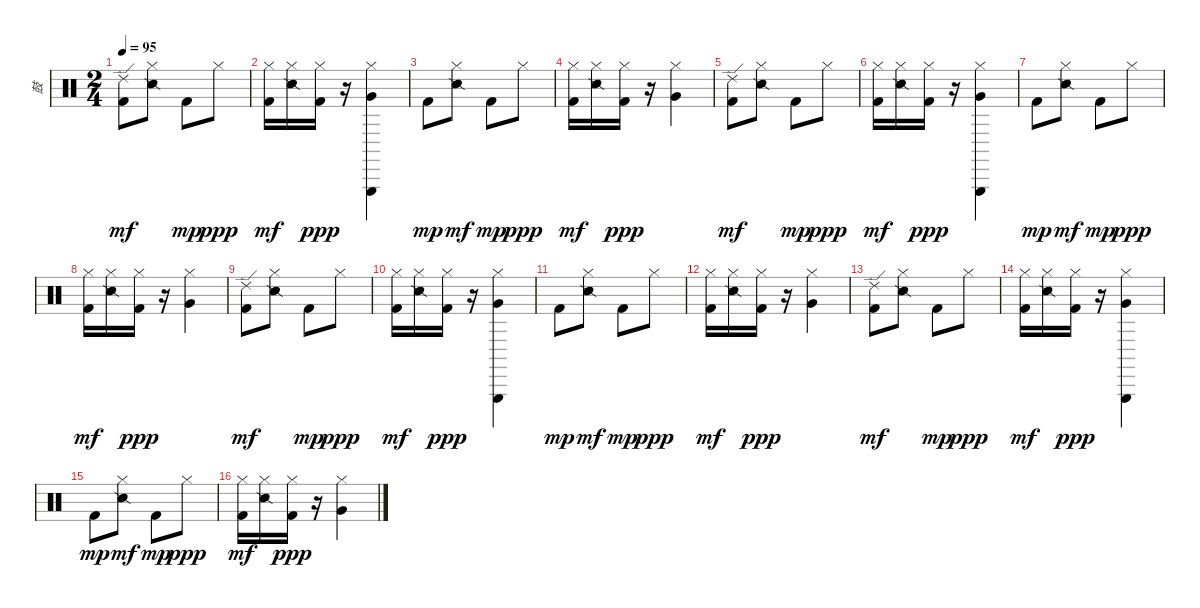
\track ("鼓" "鼓") {instrument percussion}
\staff {score}
\articulation defaults
\ts (2 4)
\tempo 95
\clef neutral
\ks c
("Kick (hit) 2" "Ride (edge) 2").8{dy mf} ("Snare (side stick) 2" "Hi-Hat (closed)").8 "Kick (hit) 2".8{dy mp} "Hi-Hat (closed)".8{dy ppp} |
("Kick (hit) 2" "Hi-Hat (closed)").16{dy mf} ("Snare (side stick) 2" "Hi-Hat (closed)").16 ("Kick (hit) 2" "Hi-Hat (closed)").16{dy ppp} r.16 ("Triangle (hit)" "Very Low Tom (hit)" "Hi-Hat (closed)").4 |
"Kick (hit) 2".8{dy mp} ("Snare (side stick) 2" "Hi-Hat (closed)").8{dy mf} "Kick (hit) 2".8{dy mp} "Hi-Hat (closed)".8{dy ppp} |
("Kick (hit) 2" "Hi-Hat (closed)").16{dy mf} ("Snare (side stick) 2" "Hi-Hat (closed)").16 ("Kick (hit) 2" "Hi-Hat (closed)").16{dy ppp} r.16 ("Very Low Tom (hit)" "Hi-Hat (closed)").4 |
("Kick (hit) 2" "Ride (edge) 2").8{dy mf} ("Snare (side stick) 2" "Hi-Hat (closed)").8 "Kick (hit) 2".8{dy mp} "Hi-Hat (closed)".8{dy ppp} |
("Kick (hit) 2" "Hi-Hat (closed)").16{dy mf} ("Snare (side stick) 2" "Hi-Hat (closed)").16 ("Kick (hit) 2" "Hi-Hat (closed)").16{dy ppp} r.16 ("Triangle (hit)" "Very Low Tom (hit)" "Hi-Hat (closed)").4 |
"Kick (hit) 2".8{dy mp} ("Snare (side stick) 2" "Hi-Hat (closed)").8{dy mf} "Kick (hit) 2".8{dy mp} "Hi-Hat (closed)".8{dy ppp} |
("Kick (hit) 2" "Hi-Hat (closed)").16{dy mf} ("Snare (side stick) 2" "Hi-Hat (closed)").16 ("Kick (hit) 2" "Hi-Hat (closed)").16{dy ppp} r.16 ("Very Low Tom (hit)" "Hi-Hat (closed)").4 |
("Kick (hit) 2" "Ride (edge) 2").8{dy mf} ("Snare (side stick) 2" "Hi-Hat (closed)").8 "Kick (hit) 2".8{dy mp} "Hi-Hat (closed)".8{dy ppp} |
("Kick (hit) 2" "Hi-Hat (closed)").16{dy mf} ("Snare (side stick) 2" "Hi-Hat (closed)").16 ("Kick (hit) 2" "Hi-Hat (closed)").16{dy ppp} r.16 ("Triangle (hit)" "Very Low Tom (hit)" "Hi-Hat (closed)").4 |
"Kick (hit) 2".8{dy mp} ("Snare (side stick) 2" "Hi-Hat (closed)").8{dy mf} "Kick (hit) 2".8{dy mp} "Hi-Hat (closed)".8{dy ppp} |
("Kick (hit) 2" "Hi-Hat (closed)").16{dy mf} ("Snare (side stick) 2" "Hi-Hat (closed)").16 ("Kick (hit) 2" "Hi-Hat (closed)").16{dy ppp} r.16 ("Very Low Tom (hit)" "Hi-Hat (closed)").4 |
("Kick (hit) 2" "Ride (edge) 2").8{dy mf} ("Snare (side stick) 2" "Hi-Hat (closed)").8 "Kick (hit) 2".8{dy mp} "Hi-Hat (closed)".8{dy ppp} |
("Kick (hit) 2" "Hi-Hat (closed)").16{dy mf} ("Snare (side stick) 2" "Hi-Hat (closed)").16 ("Kick (hit) 2" "Hi-Hat (closed)").16{dy ppp} r.16 ("Triangle (hit)" "Very Low Tom (hit)" "Hi-Hat (closed)").4 |
"Kick (hit) 2".8{dy mp} ("Snare (side stick) 2" "Hi-Hat (closed)").8{dy mf} "Kick (hit) 2".8{dy mp} "Hi-Hat (closed)".8{dy ppp} |
("Kick (hit) 2" "Hi-Hat (closed)").16{dy mf} ("Snare (side stick) 2" "Hi-Hat (closed)").16 ("Kick (hit) 2" "Hi-Hat (closed)").16{dy ppp} r.16 ("Very Low Tom (hit)" "Hi-Hat (closed)").4
